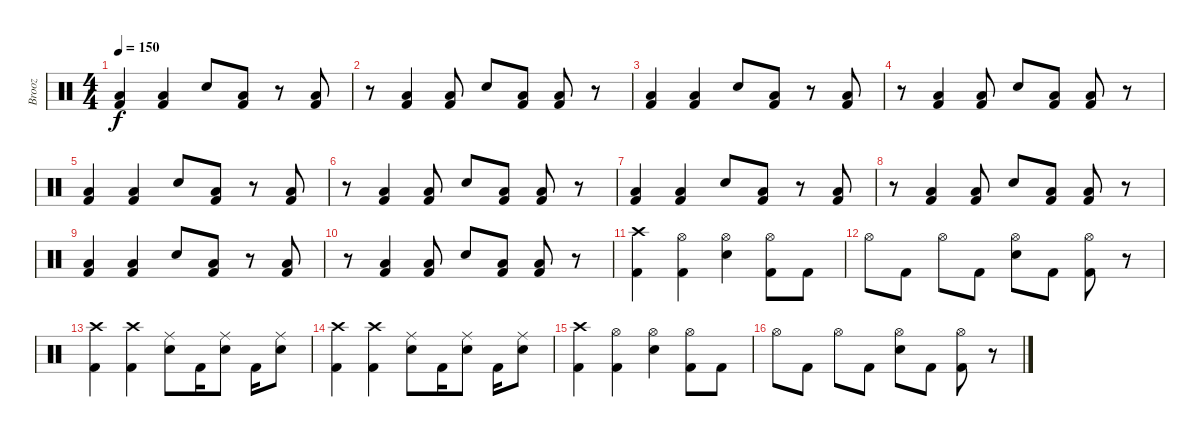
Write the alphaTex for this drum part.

\track ("Brooz" "Brooz") {instrument percussion}
\staff {score}
\articulation defaults
\ts (4 4)
\tempo 150
\clef neutral
\ks c
("Low Floor Tom (hit)" "Kick (hit) 2").4{dy f} ("Low Floor Tom (hit)" "Kick (hit) 2").4 "Electric Snare (hit)".8 ("Low Floor Tom (hit)" "Kick (hit) 2").8 r.8 ("Low Floor Tom (hit)" "Kick (hit) 2").8 |
r.8 ("Low Floor Tom (hit)" "Kick (hit) 2").4 ("Low Floor Tom (hit)" "Kick (hit) 2").8 "Electric Snare (hit)".8 ("Low Floor Tom (hit)" "Kick (hit) 2").8 ("Low Floor Tom (hit)" "Kick (hit) 2").8 r.8 |
("Low Floor Tom (hit)" "Kick (hit) 2").4 ("Low Floor Tom (hit)" "Kick (hit) 2").4 "Electric Snare (hit)".8 ("Low Floor Tom (hit)" "Kick (hit) 2").8 r.8 ("Low Floor Tom (hit)" "Kick (hit) 2").8 |
r.8 ("Low Floor Tom (hit)" "Kick (hit) 2").4 ("Low Floor Tom (hit)" "Kick (hit) 2").8 "Electric Snare (hit)".8 ("Low Floor Tom (hit)" "Kick (hit) 2").8 ("Low Floor Tom (hit)" "Kick (hit) 2").8 r.8 |
("Low Floor Tom (hit)" "Kick (hit) 2").4 ("Low Floor Tom (hit)" "Kick (hit) 2").4 "Electric Snare (hit)".8 ("Low Floor Tom (hit)" "Kick (hit) 2").8 r.8 ("Low Floor Tom (hit)" "Kick (hit) 2").8 |
r.8 ("Low Floor Tom (hit)" "Kick (hit) 2").4 ("Low Floor Tom (hit)" "Kick (hit) 2").8 "Electric Snare (hit)".8 ("Low Floor Tom (hit)" "Kick (hit) 2").8 ("Low Floor Tom (hit)" "Kick (hit) 2").8 r.8 |
("Low Floor Tom (hit)" "Kick (hit) 2").4 ("Low Floor Tom (hit)" "Kick (hit) 2").4 "Electric Snare (hit)".8 ("Low Floor Tom (hit)" "Kick (hit) 2").8 r.8 ("Low Floor Tom (hit)" "Kick (hit) 2").8 |
r.8 ("Low Floor Tom (hit)" "Kick (hit) 2").4 ("Low Floor Tom (hit)" "Kick (hit) 2").8 "Electric Snare (hit)".8 ("Low Floor Tom (hit)" "Kick (hit) 2").8 ("Low Floor Tom (hit)" "Kick (hit) 2").8 r.8 |
("Low Floor Tom (hit)" "Kick (hit) 2").4 ("Low Floor Tom (hit)" "Kick (hit) 2").4 "Electric Snare (hit)".8 ("Low Floor Tom (hit)" "Kick (hit) 2").8 r.8 ("Low Floor Tom (hit)" "Kick (hit) 2").8 |
r.8 ("Low Floor Tom (hit)" "Kick (hit) 2").4 ("Low Floor Tom (hit)" "Kick (hit) 2").8 "Electric Snare (hit)".8 ("Low Floor Tom (hit)" "Kick (hit) 2").8 ("Low Floor Tom (hit)" "Kick (hit) 2").8 r.8 |
("Crash high (hit)" "Kick (hit) 2").4 ("Hi-Hat (open)" "Kick (hit) 2").4 ("Hi-Hat (open)" "Electric Snare (hit)").4 ("Hi-Hat (open)" "Kick (hit) 2").8 "Kick (hit) 2".8 |
"Hi-Hat (open)".8 "Kick (hit) 2".8 "Hi-Hat (open)".8 "Kick (hit) 2".8 ("Hi-Hat (open)" "Electric Snare (hit)").8 "Kick (hit) 2".8 ("Hi-Hat (open)" "Kick (hit) 2").8 r.8 |
("Crash high (hit)" "Kick (hit) 2").4 ("Crash high (hit)" "Kick (hit) 2").4 ("Ride (middle)" "Electric Snare (hit)").8 "Kick (hit) 2".16 ("Ride (middle)" "Electric Snare (hit)").8 "Kick (hit) 2".16 ("Ride (middle)" "Electric Snare (hit)").8 |
("Crash high (hit)" "Kick (hit) 2").4 ("Crash high (hit)" "Kick (hit) 2").4 ("Ride (middle)" "Electric Snare (hit)").8 "Kick (hit) 2".16 ("Ride (middle)" "Electric Snare (hit)").8 "Kick (hit) 2".16 ("Ride (middle)" "Electric Snare (hit)").8 |
("Crash high (hit)" "Kick (hit) 2").4 ("Hi-Hat (open)" "Kick (hit) 2").4 ("Hi-Hat (open)" "Electric Snare (hit)").4 ("Hi-Hat (open)" "Kick (hit) 2").8 "Kick (hit) 2".8 |
"Hi-Hat (open)".8 "Kick (hit) 2".8 "Hi-Hat (open)".8 "Kick (hit) 2".8 ("Hi-Hat (open)" "Electric Snare (hit)").8 "Kick (hit) 2".8 ("Hi-Hat (open)" "Kick (hit) 2").8 r.8
